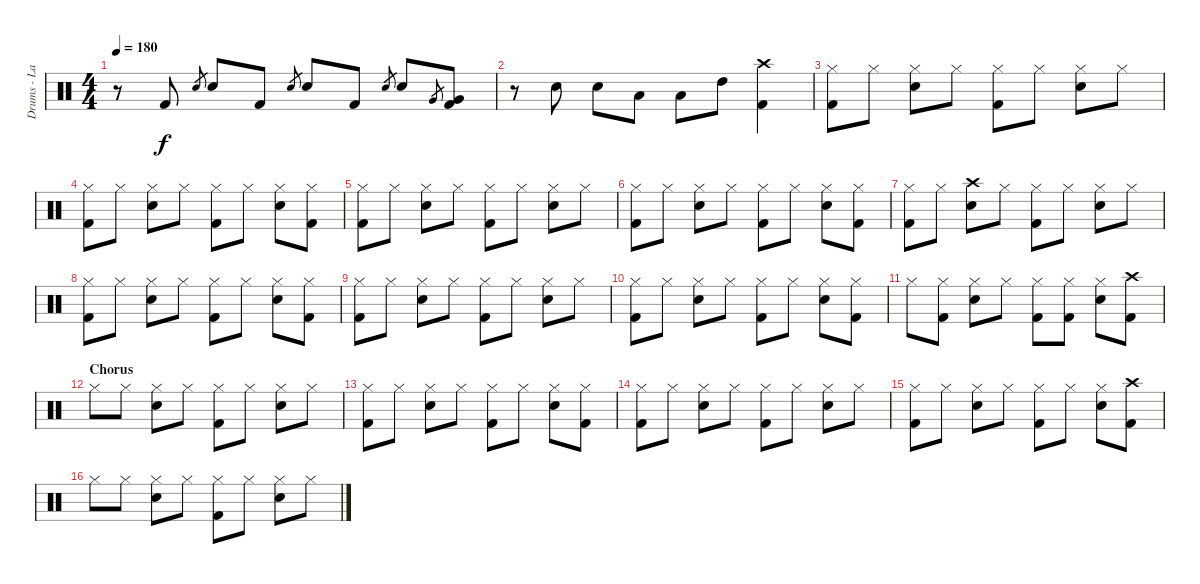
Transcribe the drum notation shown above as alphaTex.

\track ("Drums - Lars" "Drums - La") {instrument percussion}
\staff {score}
\articulation defaults
\ts (4 4)
\tempo 180
\clef neutral
\ks c
r.8{dy f} "Kick (hit) 2".8 "Snare (hit) 2".8{gr} "Snare (hit) 2".8 "Kick (hit) 2".8 "Snare (hit) 2".8{gr} "Snare (hit) 2".8 "Kick (hit) 2".8 "Snare (hit) 2".8{gr} "Snare (hit) 2".8 "Very Low Tom (hit)".8{gr} ("Very Low Tom (hit)" "Kick (hit) 2").8 |
r.8 "Snare (hit) 2".8 "Snare (hit) 2".8 "Low Tom (hit)".8 "Low Tom (hit)".8 "High Tom (hit)".8 ("Crash high (hit)" "Kick (hit) 2").4 |
("Hi-Hat (closed)" "Kick (hit) 2").8 "Hi-Hat (closed)".8 ("Hi-Hat (closed)" "Snare (hit) 2").8 "Hi-Hat (closed)".8 ("Hi-Hat (closed)" "Kick (hit) 2").8 "Hi-Hat (closed)".8 ("Hi-Hat (closed)" "Snare (hit) 2").8 "Hi-Hat (closed)".8 |
("Hi-Hat (closed)" "Kick (hit) 2").8 "Hi-Hat (closed)".8 ("Hi-Hat (closed)" "Snare (hit) 2").8 "Hi-Hat (closed)".8 ("Hi-Hat (closed)" "Kick (hit) 2").8 "Hi-Hat (closed)".8 ("Hi-Hat (closed)" "Snare (hit) 2").8 ("Hi-Hat (closed)" "Kick (hit) 2").8 |
("Hi-Hat (closed)" "Kick (hit) 2").8 "Hi-Hat (closed)".8 ("Hi-Hat (closed)" "Snare (hit) 2").8 "Hi-Hat (closed)".8 ("Hi-Hat (closed)" "Kick (hit) 2").8 "Hi-Hat (closed)".8 ("Hi-Hat (closed)" "Snare (hit) 2").8 "Hi-Hat (closed)".8 |
("Hi-Hat (closed)" "Kick (hit) 2").8 "Hi-Hat (closed)".8 ("Hi-Hat (closed)" "Snare (hit) 2").8 "Hi-Hat (closed)".8 ("Hi-Hat (closed)" "Kick (hit) 2").8 "Hi-Hat (closed)".8 ("Hi-Hat (closed)" "Snare (hit) 2").8 ("Hi-Hat (closed)" "Kick (hit) 2").8 |
("Hi-Hat (closed)" "Kick (hit) 2").8 "Hi-Hat (closed)".8 ("Crash high (hit)" "Snare (hit) 2").8 "Hi-Hat (closed)".8 ("Hi-Hat (closed)" "Kick (hit) 2").8 "Hi-Hat (closed)".8 ("Hi-Hat (closed)" "Snare (hit) 2").8 "Hi-Hat (closed)".8 |
("Hi-Hat (closed)" "Kick (hit) 2").8 "Hi-Hat (closed)".8 ("Hi-Hat (closed)" "Snare (hit) 2").8 "Hi-Hat (closed)".8 ("Hi-Hat (closed)" "Kick (hit) 2").8 "Hi-Hat (closed)".8 ("Hi-Hat (closed)" "Snare (hit) 2").8 ("Hi-Hat (closed)" "Kick (hit) 2").8 |
("Hi-Hat (closed)" "Kick (hit) 2").8 "Hi-Hat (closed)".8 ("Hi-Hat (closed)" "Snare (hit) 2").8 "Hi-Hat (closed)".8 ("Hi-Hat (closed)" "Kick (hit) 2").8 "Hi-Hat (closed)".8 ("Hi-Hat (closed)" "Snare (hit) 2").8 "Hi-Hat (closed)".8 |
("Hi-Hat (closed)" "Kick (hit) 2").8 "Hi-Hat (closed)".8 ("Hi-Hat (closed)" "Snare (hit) 2").8 "Hi-Hat (closed)".8 ("Hi-Hat (closed)" "Kick (hit) 2").8 "Hi-Hat (closed)".8 ("Hi-Hat (closed)" "Snare (hit) 2").8 ("Hi-Hat (closed)" "Kick (hit) 2").8 |
"Hi-Hat (closed)".8 ("Hi-Hat (closed)" "Kick (hit) 2").8 ("Hi-Hat (closed)" "Snare (hit) 2").8 "Hi-Hat (closed)".8 ("Hi-Hat (closed)" "Kick (hit) 2").8 ("Hi-Hat (closed)" "Kick (hit) 2").8 ("Hi-Hat (closed)" "Snare (hit) 2").8 ("Crash high (hit)" "Kick (hit) 2").8 |
\section ("" "Chorus")
"Hi-Hat (closed)".8 "Hi-Hat (closed)".8 ("Hi-Hat (closed)" "Snare (hit) 2").8 "Hi-Hat (closed)".8 ("Hi-Hat (closed)" "Kick (hit) 2").8 "Hi-Hat (closed)".8 ("Hi-Hat (closed)" "Snare (hit) 2").8 "Hi-Hat (closed)".8 |
("Hi-Hat (closed)" "Kick (hit) 2").8 "Hi-Hat (closed)".8 ("Hi-Hat (closed)" "Snare (hit) 2").8 "Hi-Hat (closed)".8 ("Hi-Hat (closed)" "Kick (hit) 2").8 "Hi-Hat (closed)".8 ("Hi-Hat (closed)" "Snare (hit) 2").8 ("Hi-Hat (closed)" "Kick (hit) 2").8 |
("Hi-Hat (closed)" "Kick (hit) 2").8 "Hi-Hat (closed)".8 ("Hi-Hat (closed)" "Snare (hit) 2").8 "Hi-Hat (closed)".8 ("Hi-Hat (closed)" "Kick (hit) 2").8 "Hi-Hat (closed)".8 ("Hi-Hat (closed)" "Snare (hit) 2").8 "Hi-Hat (closed)".8 |
("Hi-Hat (closed)" "Kick (hit) 2").8 "Hi-Hat (closed)".8 ("Hi-Hat (closed)" "Snare (hit) 2").8 "Hi-Hat (closed)".8 ("Hi-Hat (closed)" "Kick (hit) 2").8 "Hi-Hat (closed)".8 ("Hi-Hat (closed)" "Snare (hit) 2").8 ("Crash high (hit)" "Kick (hit) 2").8 |
"Hi-Hat (closed)".8 "Hi-Hat (closed)".8 ("Hi-Hat (closed)" "Snare (hit) 2").8 "Hi-Hat (closed)".8 ("Hi-Hat (closed)" "Kick (hit) 2").8 "Hi-Hat (closed)".8 ("Hi-Hat (closed)" "Snare (hit) 2").8 "Hi-Hat (closed)".8
